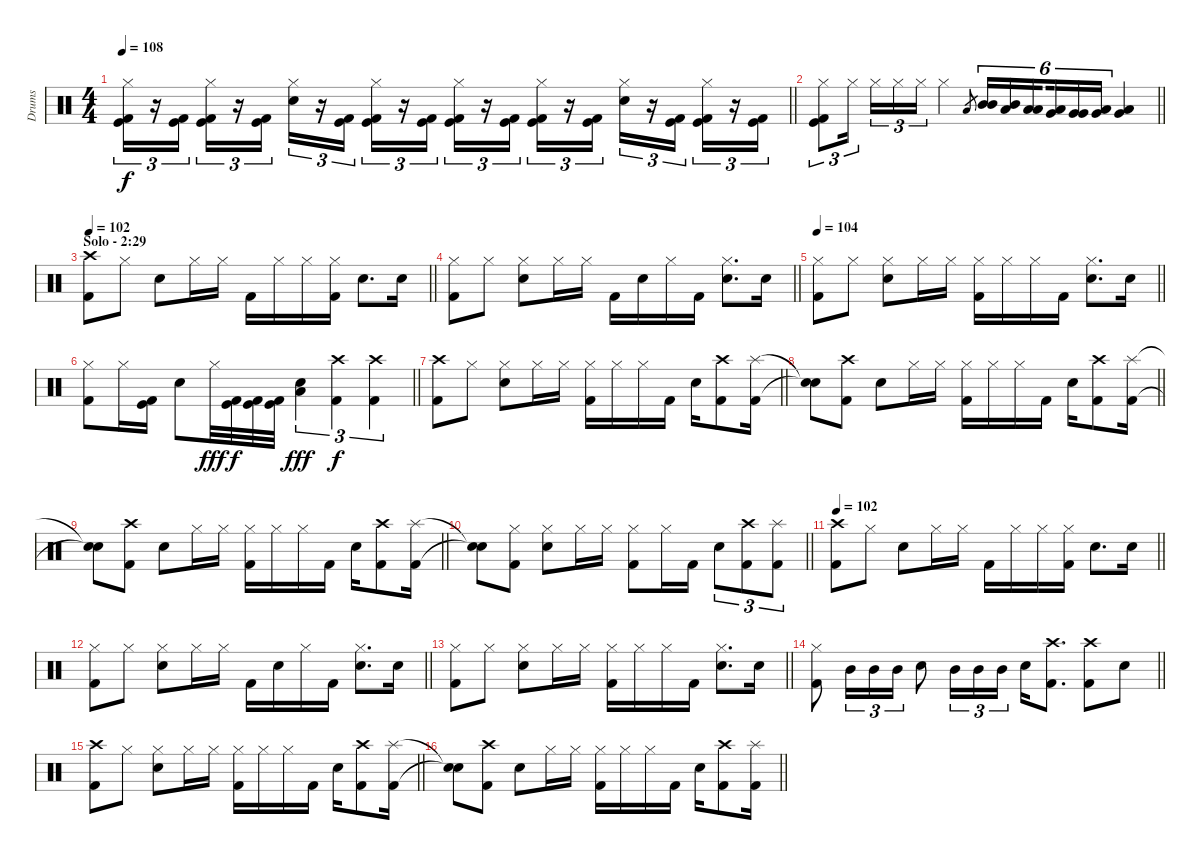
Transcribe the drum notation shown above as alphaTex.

\track ("Drums" "Drums") {instrument percussion}
\staff {score}
\articulation defaults
\ts (4 4)
\tempo 108
\clef neutral
\barLineRight lightlight
\ks c
("Hi-Hat (closed)" "Kick (hit)" "Kick (hit) 2").16{tu (3 2) dy f} r.16{tu (3 2)} ("Kick (hit)" "Kick (hit) 2").16{tu (3 2)} ("Hi-Hat (closed)" "Kick (hit)" "Kick (hit) 2").16{tu (3 2)} r.16{tu (3 2)} ("Kick (hit)" "Kick (hit) 2").16{tu (3 2)} ("Hi-Hat (closed)" "Electric Snare (hit)").16{tu (3 2)} r.16{tu (3 2)} ("Kick (hit)" "Kick (hit) 2").16{tu (3 2)} ("Hi-Hat (closed)" "Kick (hit)" "Kick (hit) 2").16{tu (3 2)} r.16{tu (3 2)} ("Kick (hit)" "Kick (hit) 2").16{tu (3 2)} ("Hi-Hat (closed)" "Kick (hit)" "Kick (hit) 2").16{tu (3 2)} r.16{tu (3 2)} ("Kick (hit)" "Kick (hit) 2").16{tu (3 2)} ("Hi-Hat (closed)" "Kick (hit)" "Kick (hit) 2").16{tu (3 2)} r.16{tu (3 2)} ("Kick (hit)" "Kick (hit) 2").16{tu (3 2)} ("Hi-Hat (closed)" "Electric Snare (hit)").16{tu (3 2)} r.16{tu (3 2)} ("Kick (hit)" "Kick (hit) 2").16{tu (3 2)} ("Hi-Hat (closed)" "Kick (hit)" "Kick (hit) 2").16{tu (3 2)} r.16{tu (3 2)} ("Kick (hit)" "Kick (hit) 2").16{tu (3 2)} |
\barLineRight lightlight
("Hi-Hat (closed)" "Kick (hit)" "Kick (hit) 2").8{tu (3 2)} "Hi-Hat (closed)".16{tu (3 2) beam splitsecondary} "Hi-Hat (closed)".16{tu (3 2)} "Hi-Hat (closed)".16{tu (3 2)} "Hi-Hat (closed)".16{tu (3 2)} "Hi-Hat (closed)".4 "Low Tom (hit)".8{gr} ("Mid Tom (hit)" "Mid Tom (hit)").16{tu (6 4)} ("Mid Tom (hit)" "Low Tom (hit)").16{tu (6 4)} ("Low Tom (hit)" "Low Tom (hit)").16{tu (6 4) beam splitsecondary} ("Low Tom (hit)" "Very Low Tom (hit)").16{tu (6 4)} ("Very Low Tom (hit)" "Very Low Tom (hit)").16{tu (6 4)} ("Very Low Tom (hit)" "Low Floor Tom (hit)").16{tu (6 4)} ("Very Low Tom (hit)" "Low Floor Tom (hit)").4 |
\section ("" "Solo - 2:29")
\tempo 102
\barLineRight lightlight
("Crash high (hit)" "Kick (hit) 2").8 "Hi-Hat (closed)".8 "Electric Snare (hit)".8 "Hi-Hat (closed)".16 "Hi-Hat (closed)".16 "Kick (hit) 2".16 "Hi-Hat (closed)".16 "Hi-Hat (closed)".16 ("Hi-Hat (closed)" "Kick (hit) 2").16 "Electric Snare (hit)".8{d} "Electric Snare (hit)".16 |
\barLineRight lightlight
("Hi-Hat (closed)" "Kick (hit) 2").8 "Hi-Hat (closed)".8 ("Hi-Hat (closed)" "Electric Snare (hit)").8 "Hi-Hat (closed)".16 "Hi-Hat (closed)".16 "Kick (hit) 2".16 "Electric Snare (hit)".16 "Hi-Hat (closed)".16 "Kick (hit) 2".16 ("Hi-Hat (closed)" "Electric Snare (hit)").8{d} "Electric Snare (hit)".16 |
\tempo 104
\barLineRight lightlight
("Hi-Hat (closed)" "Kick (hit) 2").8 "Hi-Hat (closed)".8 ("Hi-Hat (closed)" "Electric Snare (hit)").8 "Hi-Hat (closed)".16 "Hi-Hat (closed)".16 ("Hi-Hat (closed)" "Kick (hit) 2").16 "Hi-Hat (closed)".16 "Hi-Hat (closed)".16 "Kick (hit) 2".16 ("Hi-Hat (closed)" "Electric Snare (hit)").8{d} "Electric Snare (hit)".16 |
\barLineRight lightlight
("Hi-Hat (closed)" "Kick (hit) 2").8 "Hi-Hat (closed)".16 ("Kick (hit)" "Kick (hit) 2").16 "Electric Snare (hit)".8 "Hi-Hat (closed)".32{dy fff} ("Kick (hit)" "Kick (hit) 2").32{dy f} ("Kick (hit)" "Kick (hit) 2").32 ("Kick (hit)" "Kick (hit) 2").32 ("Electric Snare (hit)" "Low Tom (hit)").4{tu (3 2) dy fff} ("Crash high (hit)" "Kick (hit) 2").4{tu (3 2) dy f} ("Crash high (hit)" "Kick (hit) 2").4{tu (3 2)} |
\barLineRight lightlight
("Crash high (hit)" "Kick (hit) 2").8 "Hi-Hat (closed)".8 ("Hi-Hat (closed)" "Electric Snare (hit)").8 "Hi-Hat (closed)".16 "Hi-Hat (closed)".16 ("Hi-Hat (closed)" "Kick (hit) 2").16 "Hi-Hat (closed)".16 "Hi-Hat (closed)".16 "Kick (hit) 2".16 "Electric Snare (hit)".16 ("Crash high (hit)" "Kick (hit) 2").8 ("Splash (hit)" "Kick (hit) 2").16 |
\barLineRight lightlight
("Snare (hit)"{t} "Snare (hit)"{t}).8 ("Crash high (hit)" "Kick (hit) 2").8 "Electric Snare (hit)".8 "Hi-Hat (closed)".16 "Hi-Hat (closed)".16 ("Hi-Hat (closed)" "Kick (hit) 2").16 "Hi-Hat (closed)".16 "Hi-Hat (closed)".16 "Kick (hit) 2".16 "Electric Snare (hit)".16 ("Crash high (hit)" "Kick (hit) 2").8 ("Splash (hit)" "Kick (hit) 2").16 |
\barLineRight lightlight
("Snare (hit)"{t} "Snare (hit)"{t}).8 ("Crash high (hit)" "Kick (hit) 2").8 "Electric Snare (hit)".8 "Hi-Hat (closed)".16 "Hi-Hat (closed)".16 ("Hi-Hat (closed)" "Kick (hit) 2").16 "Hi-Hat (closed)".16 "Hi-Hat (closed)".16 "Kick (hit) 2".16 "Electric Snare (hit)".16 ("Crash high (hit)" "Kick (hit) 2").8 ("Splash (hit)" "Kick (hit) 2").16 |
\barLineRight lightlight
("Snare (hit)"{t} "Snare (hit)"{t}).8 ("Hi-Hat (closed)" "Kick (hit) 2").8 ("Hi-Hat (closed)" "Electric Snare (hit)").8 "Hi-Hat (closed)".16 "Hi-Hat (closed)".16 ("Hi-Hat (closed)" "Kick (hit) 2").8 "Hi-Hat (closed)".16 "Kick (hit) 2".16 "Electric Snare (hit)".8{tu (3 2)} ("Crash high (hit)" "Kick (hit) 2").8{tu (3 2)} ("Splash (hit)" "Kick (hit) 2").8{tu (3 2)} |
\tempo 102
\barLineRight lightlight
("Crash high (hit)" "Kick (hit) 2").8 "Hi-Hat (closed)".8 "Electric Snare (hit)".8 "Hi-Hat (closed)".16 "Hi-Hat (closed)".16 "Kick (hit) 2".16 "Hi-Hat (closed)".16 "Hi-Hat (closed)".16 ("Hi-Hat (closed)" "Kick (hit) 2").16 "Electric Snare (hit)".8{d} "Electric Snare (hit)".16 |
\barLineRight lightlight
("Hi-Hat (closed)" "Kick (hit) 2").8 "Hi-Hat (closed)".8 ("Hi-Hat (closed)" "Electric Snare (hit)").8 "Hi-Hat (closed)".16 "Hi-Hat (closed)".16 "Kick (hit) 2".16 "Electric Snare (hit)".16 "Hi-Hat (closed)".16 "Kick (hit) 2".16 ("Hi-Hat (closed)" "Electric Snare (hit)").8{d} "Electric Snare (hit)".16 |
\barLineRight lightlight
("Hi-Hat (closed)" "Kick (hit) 2").8 "Hi-Hat (closed)".8 ("Hi-Hat (closed)" "Electric Snare (hit)").8 "Hi-Hat (closed)".16 "Hi-Hat (closed)".16 ("Hi-Hat (closed)" "Kick (hit) 2").16 "Hi-Hat (closed)".16 "Hi-Hat (closed)".16 "Kick (hit) 2".16 ("Hi-Hat (closed)" "Electric Snare (hit)").8{d} "Electric Snare (hit)".16 |
\barLineRight lightlight
("Hi-Hat (closed)" "Kick (hit) 2").8 "Mid Tom (hit)".16{tu (3 2)} "Mid Tom (hit)".16{tu (3 2)} "Mid Tom (hit)".16{tu (3 2)} "Electric Snare (hit)".8 "Mid Tom (hit)".16{tu (3 2)} "Mid Tom (hit)".16{tu (3 2)} "Mid Tom (hit)".16{tu (3 2)} "Electric Snare (hit)".16 ("Crash high (hit)" "Kick (hit) 2").8{d} ("Crash high (hit)" "Kick (hit) 2").8 "Electric Snare (hit)".8 |
\barLineRight lightlight
("Crash high (hit)" "Kick (hit) 2").8 "Hi-Hat (closed)".8 ("Hi-Hat (closed)" "Electric Snare (hit)").8 "Hi-Hat (closed)".16 "Hi-Hat (closed)".16 ("Hi-Hat (closed)" "Kick (hit) 2").16 "Hi-Hat (closed)".16 "Hi-Hat (closed)".16 "Kick (hit) 2".16 "Electric Snare (hit)".16 ("Crash high (hit)" "Kick (hit) 2").8 ("Splash (hit)" "Kick (hit) 2").16 |
\barLineRight lightlight
("Snare (hit)"{t} "Snare (hit)"{t}).8 ("Crash high (hit)" "Kick (hit) 2").8 "Electric Snare (hit)".8 "Hi-Hat (closed)".16 "Hi-Hat (closed)".16 ("Hi-Hat (closed)" "Kick (hit) 2").16 "Hi-Hat (closed)".16 "Hi-Hat (closed)".16 "Kick (hit) 2".16 "Electric Snare (hit)".16 ("Crash high (hit)" "Kick (hit) 2").8 ("Splash (hit)" "Kick (hit) 2").16
